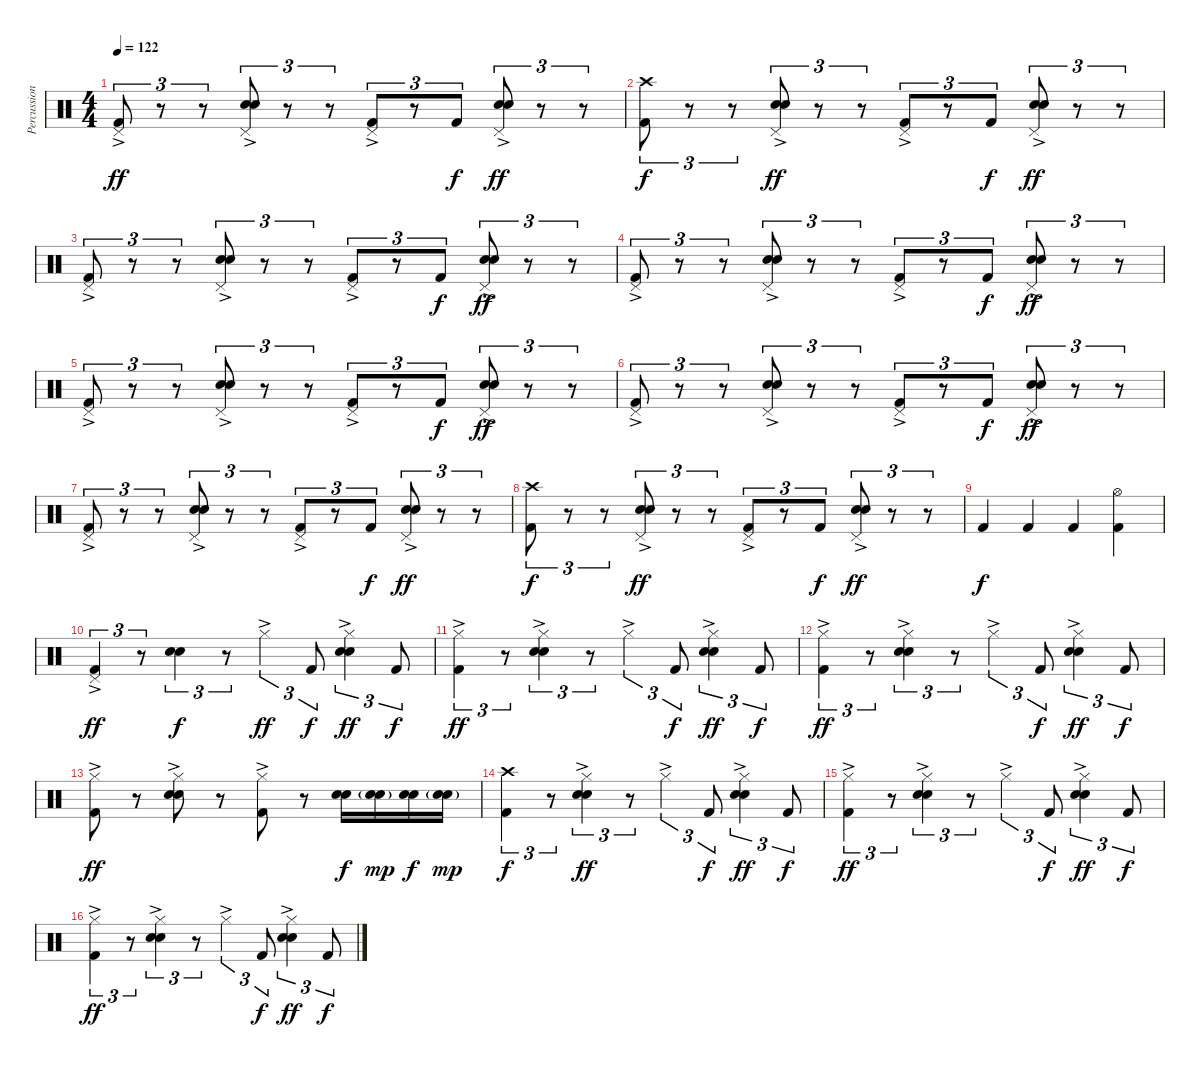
\track ("Percussion" "Percussion") {instrument percussion}
\staff {score}
\articulation defaults
\ts (4 4)
\tempo 122
\clef neutral
\ks c
("Pedal Hi-Hat (hit)"{ac} "Kick (hit) 2").8{tu (3 2) dy ff} r.8{tu (3 2)} r.8{tu (3 2)} ("Pedal Hi-Hat (hit)"{ac} "Snare (hit) 2" "Electric Snare (hit)").8{tu (3 2)} r.8{tu (3 2)} r.8{tu (3 2)} ("Pedal Hi-Hat (hit)"{ac} "Kick (hit) 2").8{tu (3 2)} r.8{tu (3 2)} "Kick (hit) 2".8{tu (3 2) dy f} ("Pedal Hi-Hat (hit)"{ac} "Snare (hit) 2" "Electric Snare (hit)").8{tu (3 2) dy ff} r.8{tu (3 2)} r.8{tu (3 2)} |
("Crash high (hit)" "Kick (hit) 2").8{tu (3 2) dy f} r.8{tu (3 2)} r.8{tu (3 2)} ("Pedal Hi-Hat (hit)"{ac} "Snare (hit) 2" "Electric Snare (hit)").8{tu (3 2) dy ff} r.8{tu (3 2)} r.8{tu (3 2)} ("Pedal Hi-Hat (hit)"{ac} "Kick (hit) 2").8{tu (3 2)} r.8{tu (3 2)} "Kick (hit) 2".8{tu (3 2) dy f} ("Pedal Hi-Hat (hit)"{ac} "Snare (hit) 2" "Electric Snare (hit)").8{tu (3 2) dy ff} r.8{tu (3 2)} r.8{tu (3 2)} |
("Pedal Hi-Hat (hit)"{ac} "Kick (hit) 2").8{tu (3 2)} r.8{tu (3 2)} r.8{tu (3 2)} ("Pedal Hi-Hat (hit)"{ac} "Snare (hit) 2" "Electric Snare (hit)").8{tu (3 2)} r.8{tu (3 2)} r.8{tu (3 2)} ("Pedal Hi-Hat (hit)"{ac} "Kick (hit) 2").8{tu (3 2)} r.8{tu (3 2)} "Kick (hit) 2".8{tu (3 2) dy f} ("Pedal Hi-Hat (hit)"{ac} "Snare (hit) 2" "Electric Snare (hit)").8{tu (3 2) dy ff} r.8{tu (3 2)} r.8{tu (3 2)} |
("Pedal Hi-Hat (hit)"{ac} "Kick (hit) 2").8{tu (3 2)} r.8{tu (3 2)} r.8{tu (3 2)} ("Pedal Hi-Hat (hit)"{ac} "Snare (hit) 2" "Electric Snare (hit)").8{tu (3 2)} r.8{tu (3 2)} r.8{tu (3 2)} ("Pedal Hi-Hat (hit)"{ac} "Kick (hit) 2").8{tu (3 2)} r.8{tu (3 2)} "Kick (hit) 2".8{tu (3 2) dy f} ("Pedal Hi-Hat (hit)"{ac} "Snare (hit) 2" "Electric Snare (hit)").8{tu (3 2) dy ff} r.8{tu (3 2)} r.8{tu (3 2)} |
("Pedal Hi-Hat (hit)"{ac} "Kick (hit) 2").8{tu (3 2)} r.8{tu (3 2)} r.8{tu (3 2)} ("Pedal Hi-Hat (hit)"{ac} "Snare (hit) 2" "Electric Snare (hit)").8{tu (3 2)} r.8{tu (3 2)} r.8{tu (3 2)} ("Pedal Hi-Hat (hit)"{ac} "Kick (hit) 2").8{tu (3 2)} r.8{tu (3 2)} "Kick (hit) 2".8{tu (3 2) dy f} ("Pedal Hi-Hat (hit)"{ac} "Snare (hit) 2" "Electric Snare (hit)").8{tu (3 2) dy ff} r.8{tu (3 2)} r.8{tu (3 2)} |
("Pedal Hi-Hat (hit)"{ac} "Kick (hit) 2").8{tu (3 2)} r.8{tu (3 2)} r.8{tu (3 2)} ("Pedal Hi-Hat (hit)"{ac} "Snare (hit) 2" "Electric Snare (hit)").8{tu (3 2)} r.8{tu (3 2)} r.8{tu (3 2)} ("Pedal Hi-Hat (hit)"{ac} "Kick (hit) 2").8{tu (3 2)} r.8{tu (3 2)} "Kick (hit) 2".8{tu (3 2) dy f} ("Pedal Hi-Hat (hit)"{ac} "Snare (hit) 2" "Electric Snare (hit)").8{tu (3 2) dy ff} r.8{tu (3 2)} r.8{tu (3 2)} |
("Pedal Hi-Hat (hit)"{ac} "Kick (hit) 2").8{tu (3 2)} r.8{tu (3 2)} r.8{tu (3 2)} ("Pedal Hi-Hat (hit)"{ac} "Snare (hit) 2" "Electric Snare (hit)").8{tu (3 2)} r.8{tu (3 2)} r.8{tu (3 2)} ("Pedal Hi-Hat (hit)"{ac} "Kick (hit) 2").8{tu (3 2)} r.8{tu (3 2)} "Kick (hit) 2".8{tu (3 2) dy f} ("Pedal Hi-Hat (hit)"{ac} "Snare (hit) 2" "Electric Snare (hit)").8{tu (3 2) dy ff} r.8{tu (3 2)} r.8{tu (3 2)} |
("Crash high (hit)" "Kick (hit) 2").8{tu (3 2) dy f} r.8{tu (3 2)} r.8{tu (3 2)} ("Pedal Hi-Hat (hit)"{ac} "Snare (hit) 2" "Electric Snare (hit)").8{tu (3 2) dy ff} r.8{tu (3 2)} r.8{tu (3 2)} ("Pedal Hi-Hat (hit)"{ac} "Kick (hit) 2").8{tu (3 2)} r.8{tu (3 2)} "Kick (hit) 2".8{tu (3 2) dy f} ("Pedal Hi-Hat (hit)"{ac} "Snare (hit) 2" "Electric Snare (hit)").8{tu (3 2) dy ff} r.8{tu (3 2)} r.8{tu (3 2)} |
"Kick (hit) 2".4{dy f} "Kick (hit) 2".4 "Kick (hit) 2".4 ("Hi-Hat (open)" "Kick (hit) 2").4 |
("Pedal Hi-Hat (hit)"{ac} "Kick (hit) 2").4{tu (3 2) dy ff} r.8{tu (3 2)} ("Snare (hit) 2" "Electric Snare (hit)").4{tu (3 2) dy f} r.8{tu (3 2)} "Hi-Hat (closed)"{ac}.4{tu (3 2) dy ff} "Kick (hit) 2".8{tu (3 2) dy f} ("Hi-Hat (closed)"{ac} "Snare (hit) 2" "Electric Snare (hit)").4{tu (3 2) dy ff} "Kick (hit) 2".8{tu (3 2) dy f} |
("Hi-Hat (closed)"{ac} "Kick (hit) 2").4{tu (3 2) dy ff} r.8{tu (3 2)} ("Hi-Hat (closed)"{ac} "Snare (hit) 2" "Electric Snare (hit)").4{tu (3 2)} r.8{tu (3 2)} "Hi-Hat (closed)"{ac}.4{tu (3 2)} "Kick (hit) 2".8{tu (3 2) dy f} ("Hi-Hat (closed)"{ac} "Snare (hit) 2" "Electric Snare (hit)").4{tu (3 2) dy ff} "Kick (hit) 2".8{tu (3 2) dy f} |
("Hi-Hat (closed)"{ac} "Kick (hit) 2").4{tu (3 2) dy ff} r.8{tu (3 2)} ("Hi-Hat (closed)"{ac} "Snare (hit) 2" "Electric Snare (hit)").4{tu (3 2)} r.8{tu (3 2)} "Hi-Hat (closed)"{ac}.4{tu (3 2)} "Kick (hit) 2".8{tu (3 2) dy f} ("Hi-Hat (closed)"{ac} "Snare (hit) 2" "Electric Snare (hit)").4{tu (3 2) dy ff} "Kick (hit) 2".8{tu (3 2) dy f} |
("Hi-Hat (closed)"{ac} "Kick (hit) 2").8{dy ff} r.8 ("Hi-Hat (closed)"{ac} "Snare (hit) 2" "Electric Snare (hit)").8 r.8 ("Hi-Hat (closed)"{ac} "Kick (hit) 2").8 r.8 ("Snare (hit) 2" "Electric Snare (hit)").16{dy f} ("Snare (hit) 2"{g} "Electric Snare (hit)"{g}).16{dy mp} ("Snare (hit) 2" "Electric Snare (hit)").16{dy f} ("Snare (hit) 2"{g} "Electric Snare (hit)"{g}).16{dy mp} |
("Crash high (hit)" "Kick (hit) 2").4{tu (3 2) dy f} r.8{tu (3 2)} ("Hi-Hat (closed)"{ac} "Snare (hit) 2" "Electric Snare (hit)").4{tu (3 2) dy ff} r.8{tu (3 2)} "Hi-Hat (closed)"{ac}.4{tu (3 2)} "Kick (hit) 2".8{tu (3 2) dy f} ("Hi-Hat (closed)"{ac} "Snare (hit) 2" "Electric Snare (hit)").4{tu (3 2) dy ff} "Kick (hit) 2".8{tu (3 2) dy f} |
("Hi-Hat (closed)"{ac} "Kick (hit) 2").4{tu (3 2) dy ff} r.8{tu (3 2)} ("Hi-Hat (closed)"{ac} "Snare (hit) 2" "Electric Snare (hit)").4{tu (3 2)} r.8{tu (3 2)} "Hi-Hat (closed)"{ac}.4{tu (3 2)} "Kick (hit) 2".8{tu (3 2) dy f} ("Hi-Hat (closed)"{ac} "Snare (hit) 2" "Electric Snare (hit)").4{tu (3 2) dy ff} "Kick (hit) 2".8{tu (3 2) dy f} |
("Hi-Hat (closed)"{ac} "Kick (hit) 2").4{tu (3 2) dy ff} r.8{tu (3 2)} ("Hi-Hat (closed)"{ac} "Snare (hit) 2" "Electric Snare (hit)").4{tu (3 2)} r.8{tu (3 2)} "Hi-Hat (closed)"{ac}.4{tu (3 2)} "Kick (hit) 2".8{tu (3 2) dy f} ("Hi-Hat (closed)"{ac} "Snare (hit) 2" "Electric Snare (hit)").4{tu (3 2) dy ff} "Kick (hit) 2".8{tu (3 2) dy f}
